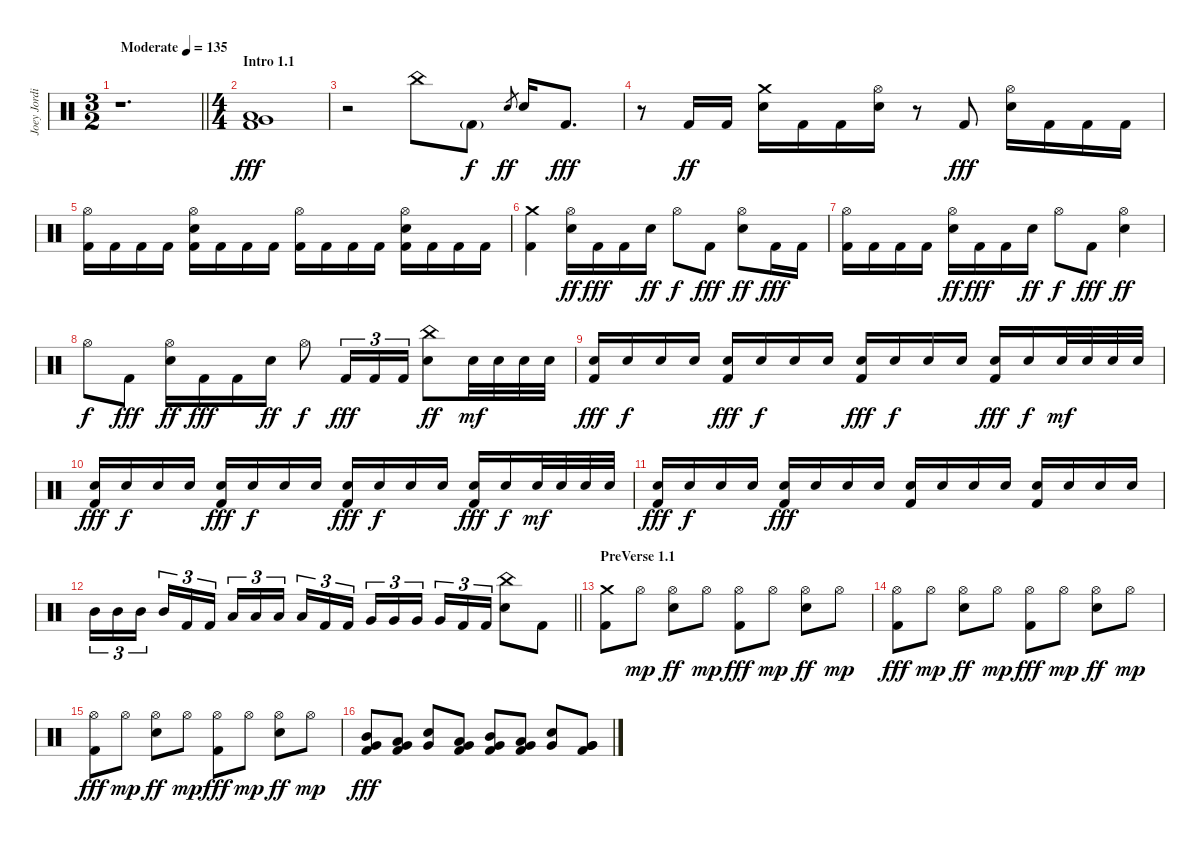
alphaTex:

\track ("Joey Jordison" "Joey Jordi") {instrument percussion}
\staff {score}
\articulation defaults
\ts (3 2)
\tempo (135 "Moderate")
\clef neutral
\barLineRight lightlight
\ks c
r.1{d dy fff} |
\ts (4 4)
\section ("" "Intro 1.1")
("Very Low Tom (hit)" "Low Floor Tom (hit)" "Kick (hit) 2").1 |
r.2 "China (hit)".8 "Kick (hit) 2"{g}.8{dy f} "Electric Snare (hit)".8{gr dy ff} "Electric Snare (hit)".16 "Kick (hit) 2".8{d dy fff} |
r.8 "Kick (hit) 2".16{dy ff} "Kick (hit) 2".16 ("Crash medium (hit)" "Electric Snare (hit)").16 "Kick (hit) 2".16 "Kick (hit) 2".16 ("Hi-Hat (open)" "Electric Snare (hit)").16 r.8 "Kick (hit) 2".8{dy fff} ("Hi-Hat (open)" "Electric Snare (hit)").16 "Kick (hit) 2".16 "Kick (hit) 2".16 "Kick (hit) 2".16 |
("Hi-Hat (open)" "Kick (hit) 2").16 "Kick (hit) 2".16 "Kick (hit) 2".16 "Kick (hit) 2".16 ("Hi-Hat (open)" "Electric Snare (hit)" "Kick (hit) 2").16 "Kick (hit) 2".16 "Kick (hit) 2".16 "Kick (hit) 2".16 ("Hi-Hat (open)" "Kick (hit) 2").16 "Kick (hit) 2".16 "Kick (hit) 2".16 "Kick (hit) 2".16 ("Hi-Hat (open)" "Electric Snare (hit)" "Kick (hit) 2").16 "Kick (hit) 2".16 "Kick (hit) 2".16 "Kick (hit) 2".16 |
("Crash medium (hit)" "Kick (hit) 2").4 ("Hi-Hat (open)" "Electric Snare (hit)").16{dy ff} "Kick (hit) 2".16{dy fff} "Kick (hit) 2".16 "Electric Snare (hit)".16{dy ff} "Hi-Hat (open)".8{dy f} "Kick (hit) 2".8{dy fff} ("Hi-Hat (open)" "Electric Snare (hit)").8{dy ff} "Kick (hit) 2".16{dy fff} "Kick (hit) 2".16 |
("Hi-Hat (open)" "Kick (hit) 2").16 "Kick (hit) 2".16 "Kick (hit) 2".16 "Kick (hit) 2".16 ("Hi-Hat (open)" "Electric Snare (hit)").16{dy ff} "Kick (hit) 2".16{dy fff} "Kick (hit) 2".16 "Electric Snare (hit)".16{dy ff} "Hi-Hat (open)".8{dy f} "Kick (hit) 2".8{dy fff} ("Hi-Hat (open)" "Electric Snare (hit)").4{dy ff} |
"Hi-Hat (open)".8{dy f} "Kick (hit) 2".8{dy fff} ("Hi-Hat (open)" "Electric Snare (hit)").16{dy ff} "Kick (hit) 2".16{dy fff} "Kick (hit) 2".16 "Electric Snare (hit)".16{dy ff} "Hi-Hat (open)".8{dy f} "Kick (hit) 2".16{tu (3 2) dy fff} "Kick (hit) 2".16{tu (3 2)} "Kick (hit) 2".16{tu (3 2)} ("China (hit)" "Electric Snare (hit)").8{dy ff} "Electric Snare (hit)".32{dy mf} "Electric Snare (hit)".32 "Electric Snare (hit)".32 "Electric Snare (hit)".32 |
("Electric Snare (hit)" "Kick (hit) 2").16{dy fff} "Electric Snare (hit)".16{dy f} "Electric Snare (hit)".16 "Electric Snare (hit)".16 ("Electric Snare (hit)" "Kick (hit) 2").16{dy fff} "Electric Snare (hit)".16{dy f} "Electric Snare (hit)".16 "Electric Snare (hit)".16 ("Electric Snare (hit)" "Kick (hit) 2").16{dy fff} "Electric Snare (hit)".16{dy f} "Electric Snare (hit)".16 "Electric Snare (hit)".16 ("Electric Snare (hit)" "Kick (hit) 2").16{dy fff} "Electric Snare (hit)".16{dy f} "Electric Snare (hit)".32{dy mf} "Electric Snare (hit)".32 "Electric Snare (hit)".32 "Electric Snare (hit)".32 |
("Electric Snare (hit)" "Kick (hit) 2").16{dy fff} "Electric Snare (hit)".16{dy f} "Electric Snare (hit)".16 "Electric Snare (hit)".16 ("Electric Snare (hit)" "Kick (hit) 2").16{dy fff} "Electric Snare (hit)".16{dy f} "Electric Snare (hit)".16 "Electric Snare (hit)".16 ("Electric Snare (hit)" "Kick (hit) 2").16{dy fff} "Electric Snare (hit)".16{dy f} "Electric Snare (hit)".16 "Electric Snare (hit)".16 ("Electric Snare (hit)" "Kick (hit) 2").16{dy fff} "Electric Snare (hit)".16{dy f} "Electric Snare (hit)".32{dy mf} "Electric Snare (hit)".32 "Electric Snare (hit)".32 "Electric Snare (hit)".32 |
("Electric Snare (hit)" "Kick (hit) 2").16{dy fff} "Electric Snare (hit)".16{dy f} "Electric Snare (hit)".16 "Electric Snare (hit)".16 ("Electric Snare (hit)" "Kick (hit) 2").16{dy fff} "Electric Snare (hit)".16 "Electric Snare (hit)".16 "Electric Snare (hit)".16 ("Electric Snare (hit)" "Kick (hit) 2").16 "Electric Snare (hit)".16 "Electric Snare (hit)".16 "Electric Snare (hit)".16 ("Electric Snare (hit)" "Kick (hit) 2").16 "Electric Snare (hit)".16 "Electric Snare (hit)".16 "Electric Snare (hit)".16 |
\barLineRight lightlight "Mid Tom (hit)".16{tu (3 2)} "Mid Tom (hit)".16{tu (3 2)} "Mid Tom (hit)".16{tu (3 2) beam splitsecondary} "Mid Tom (hit)".16{tu (3 2)} "Kick (hit) 2".16{tu (3 2)} "Kick (hit) 2".16{tu (3 2)} "Low Tom (hit)".16{tu (3 2)} "Low Tom (hit)".16{tu (3 2)} "Low Tom (hit)".16{tu (3 2) beam splitsecondary} "Low Tom (hit)".16{tu (3 2)} "Kick (hit) 2".16{tu (3 2)} "Kick (hit) 2".16{tu (3 2)} "Very Low Tom (hit)".16{tu (3 2)} "Very Low Tom (hit)".16{tu (3 2)} "Very Low Tom (hit)".16{tu (3 2) beam splitsecondary} "Very Low Tom (hit)".16{tu (3 2)} "Kick (hit) 2".16{tu (3 2)} "Kick (hit) 2".16{tu (3 2)}
("China (hit)" "Electric Snare (hit)").8 "Kick (hit) 2".8 |
\section ("" "PreVerse 1.1")
("Crash medium (hit)" "Kick (hit) 2").8 "Hi-Hat (open)".8{dy mp} ("Hi-Hat (open)" "Electric Snare (hit)").8{dy ff} "Hi-Hat (open)".8{dy mp} ("Hi-Hat (open)" "Kick (hit) 2").8{dy fff} "Hi-Hat (open)".8{dy mp} ("Hi-Hat (open)" "Electric Snare (hit)").8{dy ff} "Hi-Hat (open)".8{dy mp} |
("Hi-Hat (open)" "Kick (hit) 2").8{dy fff} "Hi-Hat (open)".8{dy mp} ("Hi-Hat (open)" "Electric Snare (hit)").8{dy ff} "Hi-Hat (open)".8{dy mp} ("Hi-Hat (open)" "Kick (hit) 2").8{dy fff} "Hi-Hat (open)".8{dy mp} ("Hi-Hat (open)" "Electric Snare (hit)").8{dy ff} "Hi-Hat (open)".8{dy mp} |
("Hi-Hat (open)" "Kick (hit) 2").8{dy fff} "Hi-Hat (open)".8{dy mp} ("Hi-Hat (open)" "Electric Snare (hit)").8{dy ff} "Hi-Hat (open)".8{dy mp} ("Hi-Hat (open)" "Kick (hit) 2").8{dy fff} "Hi-Hat (open)".8{dy mp} ("Hi-Hat (open)" "Electric Snare (hit)").8{dy ff} "Hi-Hat (open)".8{dy mp} |
("Mid Tom (hit)" "Very Low Tom (hit)" "Kick (hit) 2").8{dy fff} ("Low Tom (hit)" "Very Low Tom (hit)" "Kick (hit) 2").8 ("Electric Snare (hit)" "Very Low Tom (hit)").8 ("Low Tom (hit)" "Very Low Tom (hit)" "Kick (hit) 2").8 ("Mid Tom (hit)" "Very Low Tom (hit)" "Kick (hit) 2").8 ("Low Tom (hit)" "Very Low Tom (hit)" "Kick (hit) 2").8 ("Electric Snare (hit)" "Very Low Tom (hit)").8 ("Very Low Tom (hit)" "Very Low Tom (hit)" "Kick (hit) 2").8
